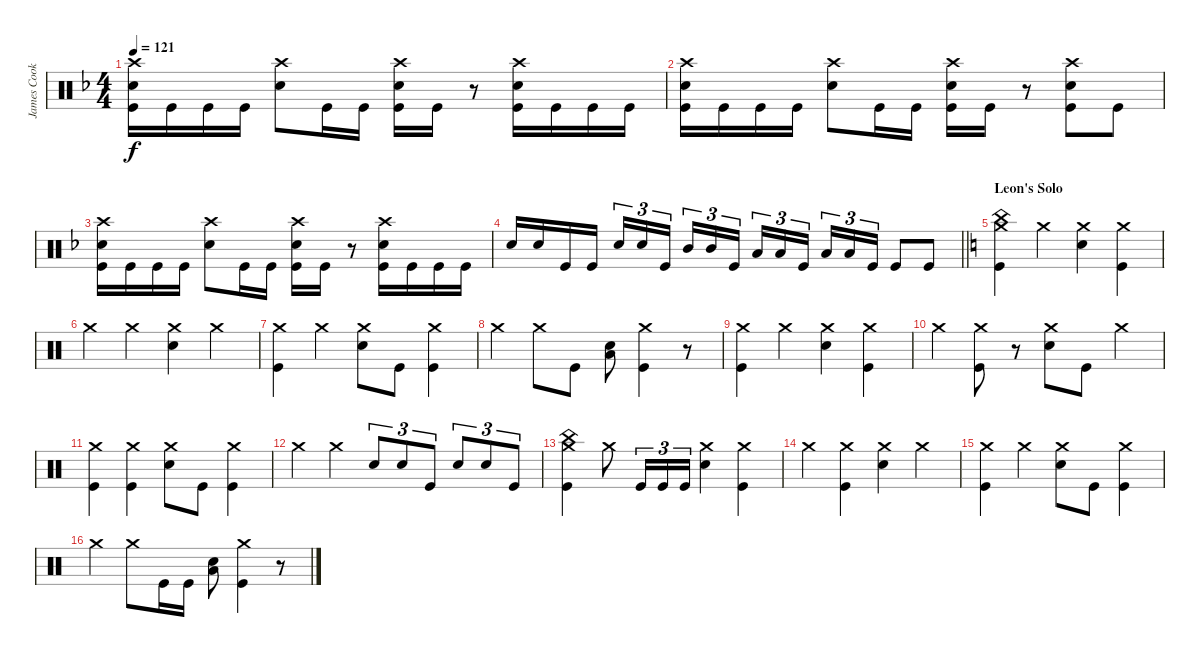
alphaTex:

\track ("James Cook" "James Cook") {instrument percussion}
\staff {score}
\articulation defaults
\ts (4 4)
\tempo 121
\clef neutral
\ks f
("Crash high (hit)" "Snare (hit) 2" "Kick (hit)").16{dy f} "Kick (hit)".16 "Kick (hit)".16 "Kick (hit)".16 ("Crash high (hit)" "Snare (hit) 2").8 "Kick (hit)".16 "Kick (hit)".16 ("Crash high (hit)" "Snare (hit) 2" "Kick (hit)").16 "Kick (hit)".16 r.8 ("Crash high (hit)" "Snare (hit) 2" "Kick (hit)").16 "Kick (hit)".16 "Kick (hit)".16 "Kick (hit)".16 |
("Crash high (hit)" "Snare (hit) 2" "Kick (hit)").16 "Kick (hit)".16 "Kick (hit)".16 "Kick (hit)".16 ("Crash high (hit)" "Snare (hit) 2").8 "Kick (hit)".16 "Kick (hit)".16 ("Crash high (hit)" "Snare (hit) 2" "Kick (hit)").16 "Kick (hit)".16 r.8 ("Crash high (hit)" "Snare (hit) 2" "Kick (hit)").8 "Kick (hit)".8 |
("Crash high (hit)" "Snare (hit) 2" "Kick (hit)").16 "Kick (hit)".16 "Kick (hit)".16 "Kick (hit)".16 ("Crash high (hit)" "Snare (hit) 2").8 "Kick (hit)".16 "Kick (hit)".16 ("Crash high (hit)" "Snare (hit) 2" "Kick (hit)").16 "Kick (hit)".16 r.8 ("Crash high (hit)" "Snare (hit) 2" "Kick (hit)").16 "Kick (hit)".16 "Kick (hit)".16 "Kick (hit)".16 |
\barLineRight lightlight "Snare (hit) 2".16 "Snare (hit) 2".16 "Kick (hit)".16 "Kick (hit)".16 "Snare (hit) 2".16{tu (3 2)} "Snare (hit) 2".16{tu (3 2)} "Kick (hit)".16{tu (3 2) beam splitsecondary} "Mid Tom (hit)".16{tu (3 2)} "Mid Tom (hit)".16{tu (3 2)} "Kick (hit)".16{tu (3 2)} "Low Tom (hit)".16{tu (3 2)} "Low Tom (hit)".16{tu (3 2)} "Kick (hit)".16{tu (3 2) beam splitsecondary} "Low Tom (hit)".16{tu (3 2)} "Low Tom (hit)".16{tu (3 2)} "Kick (hit)".16{tu (3 2)} "Kick (hit)".8 "Kick (hit)".8
|
\section ("" "Leon's Solo")
\ks c
("China (hit)" "Crash medium (hit)" "Kick (hit)").4 "Crash medium (hit)".4 ("Crash medium (hit)" "Snare (hit) 2").4 ("Crash medium (hit)" "Kick (hit)").4 |
"Crash medium (hit)".4 "Crash medium (hit)".4 ("Crash medium (hit)" "Snare (hit) 2").4 "Crash medium (hit)".4 |
("Crash medium (hit)" "Kick (hit)").4 "Crash medium (hit)".4 ("Crash medium (hit)" "Snare (hit) 2").8 "Kick (hit)".8 ("Crash medium (hit)" "Kick (hit)").4 |
"Crash medium (hit)".4 "Crash medium (hit)".8 "Kick (hit)".8 ("Low Floor Tom (hit)" "Snare (hit) 2").8 ("Crash medium (hit)" "Kick (hit)").4 r.8 |
("Crash medium (hit)" "Kick (hit)").4 "Crash medium (hit)".4 ("Crash medium (hit)" "Snare (hit) 2").4 ("Crash medium (hit)" "Kick (hit)").4 |
"Crash medium (hit)".4 ("Crash medium (hit)" "Kick (hit)").8 r.8 ("Crash medium (hit)" "Snare (hit) 2").8 "Kick (hit)".8 "Crash medium (hit)".4 |
("Crash medium (hit)" "Kick (hit)").4 ("Crash medium (hit)" "Kick (hit)").4 ("Crash medium (hit)" "Snare (hit) 2").8 "Kick (hit)".8 ("Crash medium (hit)" "Kick (hit)").4 |
"Crash medium (hit)".4 "Crash medium (hit)".4 "Snare (hit) 2".8{tu (3 2)} "Snare (hit) 2".8{tu (3 2)} "Kick (hit)".8{tu (3 2)} "Snare (hit) 2".8{tu (3 2)} "Snare (hit) 2".8{tu (3 2)} "Kick (hit)".8{tu (3 2)} |
("China (hit)" "Crash medium (hit)" "Kick (hit)").4 "Crash medium (hit)".8 "Kick (hit)".16{tu (3 2)} "Kick (hit)".16{tu (3 2)} "Kick (hit)".16{tu (3 2)} ("Crash medium (hit)" "Snare (hit) 2").4 ("Crash medium (hit)" "Kick (hit)").4 |
"Crash medium (hit)".4 ("Crash medium (hit)" "Kick (hit)").4 ("Crash medium (hit)" "Snare (hit) 2").4 "Crash medium (hit)".4 |
("Crash medium (hit)" "Kick (hit)").4 "Crash medium (hit)".4 ("Crash medium (hit)" "Snare (hit) 2").8 "Kick (hit)".8 ("Crash medium (hit)" "Kick (hit)").4 |
"Crash medium (hit)".4 "Crash medium (hit)".8 "Kick (hit)".16 "Kick (hit)".16 ("Low Floor Tom (hit)" "Snare (hit) 2").8 ("Crash medium (hit)" "Kick (hit)").4 r.8
